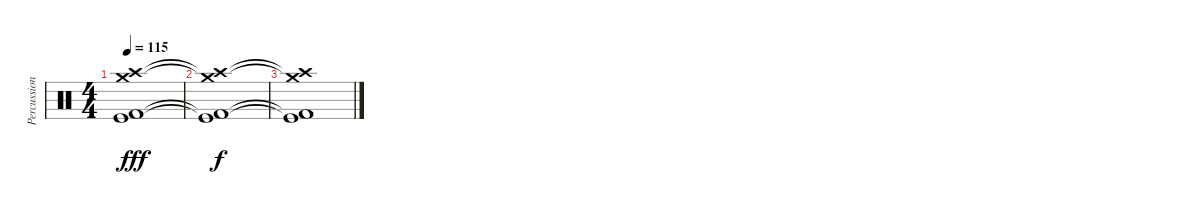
\track ("Percussion" "Percussion") {instrument percussion}
\staff {score}
\articulation defaults
\ts (4 4)
\tempo 115
\clef neutral
\ks c
("Crash medium (hit)" "Crash high (hit)" "Kick (hit) 2" "Kick (hit)").1{dy fff} |
("Crash medium (hit)"{t} "Crash high (hit)"{t} "Kick (hit) 2"{t} "Kick (hit)"{t}).1{dy f} |
("Crash medium (hit)"{t} "Crash high (hit)"{t} "Kick (hit) 2"{t} "Kick (hit)"{t}).1
